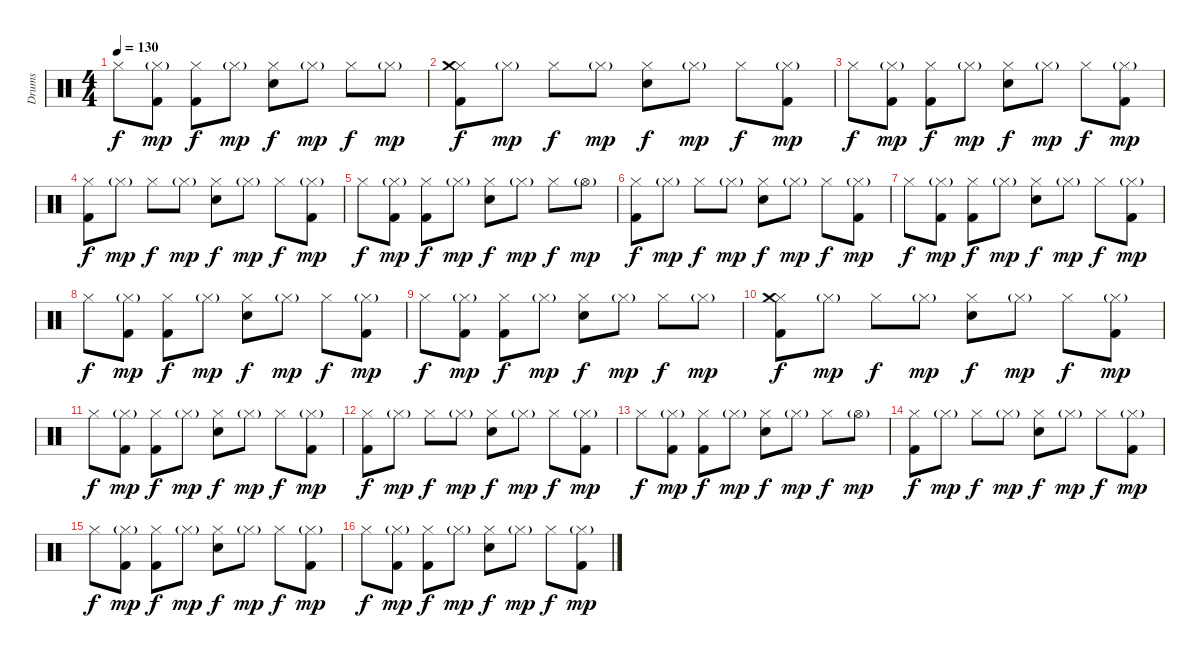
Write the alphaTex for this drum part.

\track ("Drums" "Drums") {instrument percussion}
\staff {score}
\articulation defaults
\ts (4 4)
\tempo 130
\clef neutral
\ks c "Hi-Hat (closed)".8{dy f}
("Hi-Hat (closed)"{g} "Kick (hit) 2").8{dy mp} ("Hi-Hat (closed)" "Kick (hit) 2").8{dy f} "Hi-Hat (closed)"{g}.8{dy mp} ("Hi-Hat (closed)" "Electric Snare (hit)").8{dy f} "Hi-Hat (closed)"{g}.8{dy mp} "Hi-Hat (closed)".8{dy f} "Hi-Hat (closed)"{g}.8{dy mp} |
("Hi-Hat (closed)" "Crash medium (hit)" "Kick (hit) 2").8{dy f} "Hi-Hat (closed)"{g}.8{dy mp} "Hi-Hat (closed)".8{dy f} "Hi-Hat (closed)"{g}.8{dy mp} ("Hi-Hat (closed)" "Electric Snare (hit)").8{dy f} "Hi-Hat (closed)"{g}.8{dy mp} "Hi-Hat (closed)".8{dy f} ("Hi-Hat (closed)"{g} "Kick (hit) 2").8{dy mp} |
"Hi-Hat (closed)".8{dy f} ("Hi-Hat (closed)"{g} "Kick (hit) 2").8{dy mp} ("Hi-Hat (closed)" "Kick (hit) 2").8{dy f} "Hi-Hat (closed)"{g}.8{dy mp} ("Hi-Hat (closed)" "Electric Snare (hit)").8{dy f} "Hi-Hat (closed)"{g}.8{dy mp} "Hi-Hat (closed)".8{dy f} ("Hi-Hat (closed)"{g} "Kick (hit) 2").8{dy mp} |
("Hi-Hat (closed)" "Kick (hit) 2").8{dy f} "Hi-Hat (closed)"{g}.8{dy mp} "Hi-Hat (closed)".8{dy f} "Hi-Hat (closed)"{g}.8{dy mp} ("Hi-Hat (closed)" "Electric Snare (hit)").8{dy f} "Hi-Hat (closed)"{g}.8{dy mp} "Hi-Hat (closed)".8{dy f} ("Hi-Hat (closed)"{g} "Kick (hit) 2").8{dy mp} |
"Hi-Hat (closed)".8{dy f} ("Hi-Hat (closed)"{g} "Kick (hit) 2").8{dy mp} ("Hi-Hat (closed)" "Kick (hit) 2").8{dy f} "Hi-Hat (closed)"{g}.8{dy mp} ("Hi-Hat (closed)" "Electric Snare (hit)").8{dy f} "Hi-Hat (closed)"{g}.8{dy mp} "Hi-Hat (closed)".8{dy f} "Hi-Hat (open)"{g}.8{dy mp} |
("Hi-Hat (closed)" "Kick (hit) 2").8{dy f} "Hi-Hat (closed)"{g}.8{dy mp} "Hi-Hat (closed)".8{dy f} "Hi-Hat (closed)"{g}.8{dy mp} ("Hi-Hat (closed)" "Electric Snare (hit)").8{dy f} "Hi-Hat (closed)"{g}.8{dy mp} "Hi-Hat (closed)".8{dy f} ("Hi-Hat (closed)"{g} "Kick (hit) 2").8{dy mp} |
"Hi-Hat (closed)".8{dy f} ("Hi-Hat (closed)"{g} "Kick (hit) 2").8{dy mp} ("Hi-Hat (closed)" "Kick (hit) 2").8{dy f} "Hi-Hat (closed)"{g}.8{dy mp} ("Hi-Hat (closed)" "Electric Snare (hit)").8{dy f} "Hi-Hat (closed)"{g}.8{dy mp} "Hi-Hat (closed)".8{dy f} ("Hi-Hat (closed)"{g} "Kick (hit) 2").8{dy mp} |
"Hi-Hat (closed)".8{dy f} ("Hi-Hat (closed)"{g} "Kick (hit) 2").8{dy mp} ("Hi-Hat (closed)" "Kick (hit) 2").8{dy f} "Hi-Hat (closed)"{g}.8{dy mp} ("Hi-Hat (closed)" "Electric Snare (hit)").8{dy f} "Hi-Hat (closed)"{g}.8{dy mp} "Hi-Hat (closed)".8{dy f} ("Hi-Hat (closed)"{g} "Kick (hit) 2").8{dy mp} |
"Hi-Hat (closed)".8{dy f} ("Hi-Hat (closed)"{g} "Kick (hit) 2").8{dy mp} ("Hi-Hat (closed)" "Kick (hit) 2").8{dy f} "Hi-Hat (closed)"{g}.8{dy mp} ("Hi-Hat (closed)" "Electric Snare (hit)").8{dy f} "Hi-Hat (closed)"{g}.8{dy mp} "Hi-Hat (closed)".8{dy f} "Hi-Hat (closed)"{g}.8{dy mp} |
("Hi-Hat (closed)" "Crash medium (hit)" "Kick (hit) 2").8{dy f} "Hi-Hat (closed)"{g}.8{dy mp} "Hi-Hat (closed)".8{dy f} "Hi-Hat (closed)"{g}.8{dy mp} ("Hi-Hat (closed)" "Electric Snare (hit)").8{dy f} "Hi-Hat (closed)"{g}.8{dy mp} "Hi-Hat (closed)".8{dy f} ("Hi-Hat (closed)"{g} "Kick (hit) 2").8{dy mp} |
"Hi-Hat (closed)".8{dy f} ("Hi-Hat (closed)"{g} "Kick (hit) 2").8{dy mp} ("Hi-Hat (closed)" "Kick (hit) 2").8{dy f} "Hi-Hat (closed)"{g}.8{dy mp} ("Hi-Hat (closed)" "Electric Snare (hit)").8{dy f} "Hi-Hat (closed)"{g}.8{dy mp} "Hi-Hat (closed)".8{dy f} ("Hi-Hat (closed)"{g} "Kick (hit) 2").8{dy mp} |
("Hi-Hat (closed)" "Kick (hit) 2").8{dy f} "Hi-Hat (closed)"{g}.8{dy mp} "Hi-Hat (closed)".8{dy f} "Hi-Hat (closed)"{g}.8{dy mp} ("Hi-Hat (closed)" "Electric Snare (hit)").8{dy f} "Hi-Hat (closed)"{g}.8{dy mp} "Hi-Hat (closed)".8{dy f} ("Hi-Hat (closed)"{g} "Kick (hit) 2").8{dy mp} |
"Hi-Hat (closed)".8{dy f} ("Hi-Hat (closed)"{g} "Kick (hit) 2").8{dy mp} ("Hi-Hat (closed)" "Kick (hit) 2").8{dy f} "Hi-Hat (closed)"{g}.8{dy mp} ("Hi-Hat (closed)" "Electric Snare (hit)").8{dy f} "Hi-Hat (closed)"{g}.8{dy mp} "Hi-Hat (closed)".8{dy f} "Hi-Hat (open)"{g}.8{dy mp} |
("Hi-Hat (closed)" "Kick (hit) 2").8{dy f} "Hi-Hat (closed)"{g}.8{dy mp} "Hi-Hat (closed)".8{dy f} "Hi-Hat (closed)"{g}.8{dy mp} ("Hi-Hat (closed)" "Electric Snare (hit)").8{dy f} "Hi-Hat (closed)"{g}.8{dy mp} "Hi-Hat (closed)".8{dy f} ("Hi-Hat (closed)"{g} "Kick (hit) 2").8{dy mp} |
"Hi-Hat (closed)".8{dy f} ("Hi-Hat (closed)"{g} "Kick (hit) 2").8{dy mp} ("Hi-Hat (closed)" "Kick (hit) 2").8{dy f} "Hi-Hat (closed)"{g}.8{dy mp} ("Hi-Hat (closed)" "Electric Snare (hit)").8{dy f} "Hi-Hat (closed)"{g}.8{dy mp} "Hi-Hat (closed)".8{dy f} ("Hi-Hat (closed)"{g} "Kick (hit) 2").8{dy mp} |
"Hi-Hat (closed)".8{dy f} ("Hi-Hat (closed)"{g} "Kick (hit) 2").8{dy mp} ("Hi-Hat (closed)" "Kick (hit) 2").8{dy f} "Hi-Hat (closed)"{g}.8{dy mp} ("Hi-Hat (closed)" "Electric Snare (hit)").8{dy f} "Hi-Hat (closed)"{g}.8{dy mp} "Hi-Hat (closed)".8{dy f} ("Hi-Hat (closed)"{g} "Kick (hit) 2").8{dy mp}
